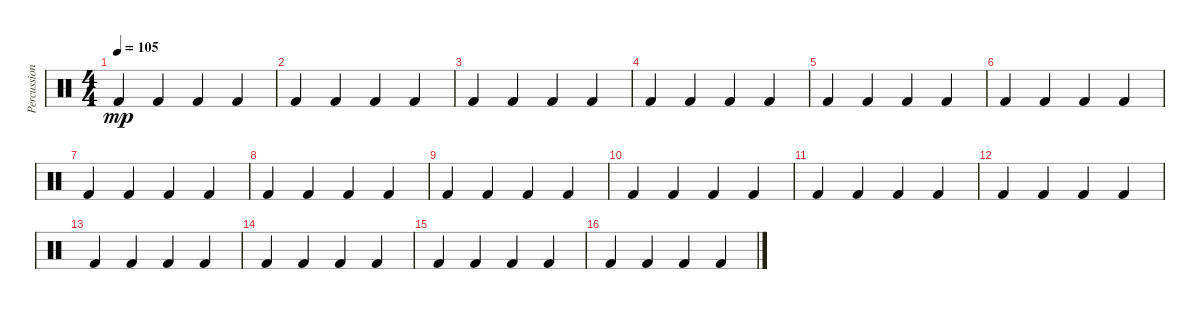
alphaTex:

\track ("Percussions" "Percussion") {instrument percussion}
\staff {score}
\articulation defaults
\ts (4 4)
\tempo 105
\clef neutral
\ks c "Kick (hit) 2".4{dy mp} "Kick (hit) 2".4 "Kick (hit) 2".4 "Kick (hit) 2".4
|
"Kick (hit) 2".4 "Kick (hit) 2".4 "Kick (hit) 2".4 "Kick (hit) 2".4 |
"Kick (hit) 2".4 "Kick (hit) 2".4 "Kick (hit) 2".4 "Kick (hit) 2".4 |
"Kick (hit) 2".4 "Kick (hit) 2".4 "Kick (hit) 2".4 "Kick (hit) 2".4 |
"Kick (hit) 2".4 "Kick (hit) 2".4 "Kick (hit) 2".4 "Kick (hit) 2".4 |
"Kick (hit) 2".4 "Kick (hit) 2".4 "Kick (hit) 2".4 "Kick (hit) 2".4 |
"Kick (hit) 2".4 "Kick (hit) 2".4 "Kick (hit) 2".4 "Kick (hit) 2".4 |
"Kick (hit) 2".4 "Kick (hit) 2".4 "Kick (hit) 2".4 "Kick (hit) 2".4 |
"Kick (hit) 2".4 "Kick (hit) 2".4 "Kick (hit) 2".4 "Kick (hit) 2".4 |
"Kick (hit) 2".4 "Kick (hit) 2".4 "Kick (hit) 2".4 "Kick (hit) 2".4 |
"Kick (hit) 2".4 "Kick (hit) 2".4 "Kick (hit) 2".4 "Kick (hit) 2".4 |
"Kick (hit) 2".4 "Kick (hit) 2".4 "Kick (hit) 2".4 "Kick (hit) 2".4 |
"Kick (hit) 2".4 "Kick (hit) 2".4 "Kick (hit) 2".4 "Kick (hit) 2".4 |
"Kick (hit) 2".4 "Kick (hit) 2".4 "Kick (hit) 2".4 "Kick (hit) 2".4 |
"Kick (hit) 2".4 "Kick (hit) 2".4 "Kick (hit) 2".4 "Kick (hit) 2".4 |
"Kick (hit) 2".4 "Kick (hit) 2".4 "Kick (hit) 2".4 "Kick (hit) 2".4
